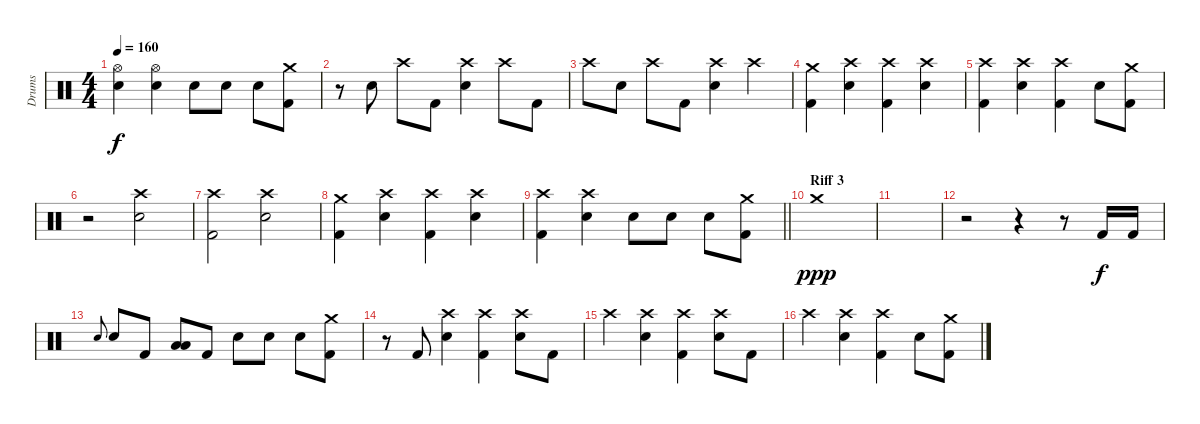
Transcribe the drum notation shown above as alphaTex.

\track ("Drums" "Drums") {instrument percussion}
\staff {score}
\articulation defaults
\ts (4 4)
\tempo 160
\clef neutral
\ks c
("Electric Snare (hit)" "Hi-Hat (open)").4{dy f} ("Hi-Hat (open)" "Electric Snare (hit)").4 "Electric Snare (hit)".8 "Electric Snare (hit)".8 "Electric Snare (hit)".8 ("Crash medium (hit)" "Kick (hit) 2").8 |
r.8 "Electric Snare (hit)".8 "Crash high (hit)".8 "Kick (hit) 2".8 ("Crash high (hit)" "Electric Snare (hit)").4 "Crash high (hit)".8 "Kick (hit) 2".8 |
"Crash high (hit)".8 "Electric Snare (hit)".8 "Crash high (hit)".8 "Kick (hit) 2".8 ("Crash high (hit)" "Electric Snare (hit)").4 "Crash high (hit)".4 |
("Crash medium (hit)" "Kick (hit) 2").4 ("Crash high (hit)" "Electric Snare (hit)").4 ("Kick (hit) 2" "Crash high (hit)").4 ("Crash high (hit)" "Electric Snare (hit)").4 |
("Kick (hit) 2" "Crash high (hit)").4 ("Crash high (hit)" "Electric Snare (hit)").4 ("Kick (hit) 2" "Crash high (hit)").4 "Electric Snare (hit)".8 ("Kick (hit) 2" "Crash medium (hit)").8 |
r.2 ("Electric Snare (hit)" "Crash high (hit)").2 |
("Kick (hit) 2" "Crash high (hit)").2 ("Electric Snare (hit)" "Crash high (hit)").2 |
("Crash medium (hit)" "Kick (hit) 2").4 ("Crash high (hit)" "Electric Snare (hit)").4 ("Kick (hit) 2" "Crash high (hit)").4 ("Crash high (hit)" "Electric Snare (hit)").4 |
\barLineRight lightlight
("Kick (hit) 2" "Crash high (hit)").4 ("Crash high (hit)" "Electric Snare (hit)").4 "Electric Snare (hit)".8 "Electric Snare (hit)".8 "Electric Snare (hit)".8 ("Kick (hit) 2" "Crash medium (hit)").8 |
\section ("" "Riff 3")
"Crash medium (hit)".1{dy ppp} |
|
r.2 r.4 r.8 "Kick (hit) 2".16{dy f} "Kick (hit) 2".16 |
"Electric Snare (hit)".8{gr onbeat} "Electric Snare (hit)".8 "Kick (hit) 2".8 ("Low Tom (hit)" "Low Floor Tom (hit)").8 "Kick (hit) 2".8 "Electric Snare (hit)".8 "Electric Snare (hit)".8 "Electric Snare (hit)".8 ("Kick (hit) 2" "Crash medium (hit)").8 |
r.8 "Kick (hit) 2".8 ("Crash high (hit)" "Electric Snare (hit)").4 ("Crash high (hit)" "Kick (hit) 2").4 ("Crash high (hit)" "Electric Snare (hit)").8 "Kick (hit) 2".8 |
"Crash high (hit)".4 ("Crash high (hit)" "Electric Snare (hit)").4 ("Crash high (hit)" "Kick (hit) 2").4 ("Crash high (hit)" "Electric Snare (hit)").8 "Kick (hit) 2".8 |
"Crash high (hit)".4 ("Crash high (hit)" "Electric Snare (hit)").4 ("Crash high (hit)" "Kick (hit) 2").4 "Electric Snare (hit)".8 ("Kick (hit) 2" "Crash medium (hit)").8
